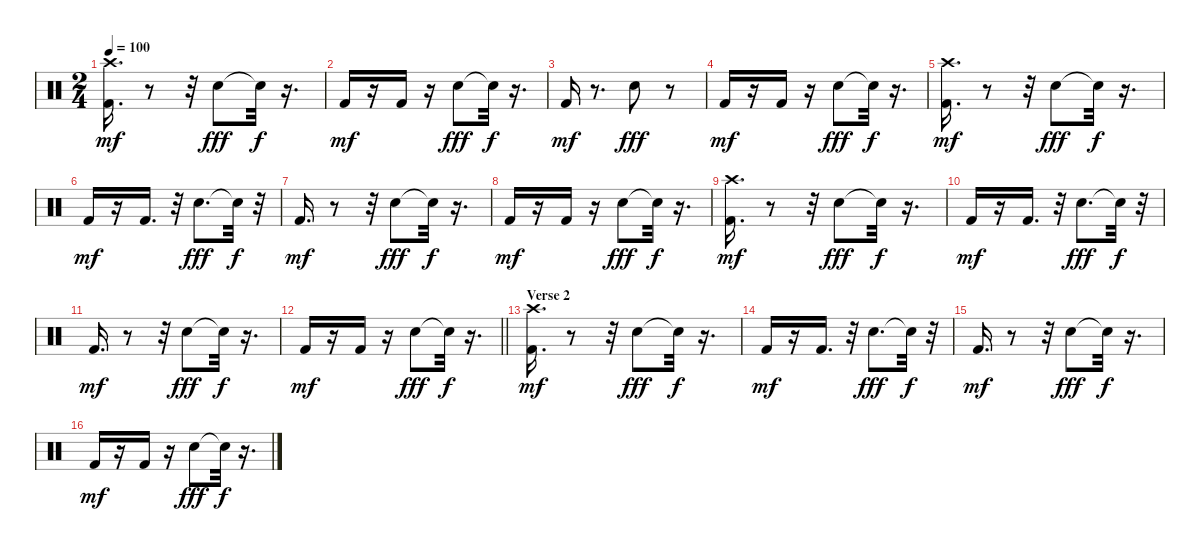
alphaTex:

\track "" {instrument percussion}
\staff {score}
\articulation defaults
\ts (2 4)
\tempo 100
\clef neutral
\ks c
("Crash high (hit)" "Kick (hit) 2").16{d dy mf} r.8 r.32 "Snare (hit) 2".8{dy fff} "Snare (hit)"{t}.32{dy f} r.16{d} |
"Kick (hit) 2".16{dy mf} r.16 "Kick (hit) 2".16 r.16 "Snare (hit) 2".8{dy fff} "Snare (hit)"{t}.32{dy f} r.16{d} |
"Kick (hit) 2".16{dy mf} r.8{d} "Snare (hit) 2".8{dy fff} r.8 |
"Kick (hit) 2".16{dy mf} r.16 "Kick (hit) 2".16 r.16 "Snare (hit) 2".8{dy fff} "Snare (hit)"{t}.32{dy f} r.16{d} |
("Crash high (hit)" "Kick (hit) 2").16{d dy mf} r.8 r.32 "Snare (hit) 2".8{dy fff} "Snare (hit)"{t}.32{dy f} r.16{d} |
"Kick (hit) 2".16{dy mf} r.16 "Kick (hit) 2".16{d} r.32 "Snare (hit) 2".8{d dy fff} "Snare (hit)"{t}.32{dy f} r.32 |
"Kick (hit) 2".16{d dy mf} r.8 r.32 "Snare (hit) 2".8{dy fff} "Snare (hit)"{t}.32{dy f} r.16{d} |
"Kick (hit) 2".16{dy mf} r.16 "Kick (hit) 2".16 r.16 "Snare (hit) 2".8{dy fff} "Snare (hit)"{t}.32{dy f} r.16{d} |
("Crash high (hit)" "Kick (hit) 2").16{d dy mf} r.8 r.32 "Snare (hit) 2".8{dy fff} "Snare (hit)"{t}.32{dy f} r.16{d} |
"Kick (hit) 2".16{dy mf} r.16 "Kick (hit) 2".16{d} r.32 "Snare (hit) 2".8{d dy fff} "Snare (hit)"{t}.32{dy f} r.32 |
"Kick (hit) 2".16{d dy mf} r.8 r.32 "Snare (hit) 2".8{dy fff} "Snare (hit)"{t}.32{dy f} r.16{d} |
\barLineRight lightlight "Kick (hit) 2".16{dy mf}
r.16 "Kick (hit) 2".16 r.16 "Snare (hit) 2".8{dy fff} "Snare (hit)"{t}.32{dy f} r.16{d} |
\section ("" "Verse 2")
("Kick (hit) 2" "Crash high (hit)").16{d dy mf} r.8 r.32 "Snare (hit) 2".8{dy fff} "Snare (hit)"{t}.32{dy f} r.16{d} |
"Kick (hit) 2".16{dy mf} r.16 "Kick (hit) 2".16{d} r.32 "Snare (hit) 2".8{d dy fff} "Snare (hit)"{t}.32{dy f} r.32 |
"Kick (hit) 2".16{d dy mf} r.8 r.32 "Snare (hit) 2".8{dy fff} "Snare (hit)"{t}.32{dy f} r.16{d} |
"Kick (hit) 2".16{dy mf} r.16 "Kick (hit) 2".16 r.16 "Snare (hit) 2".8{dy fff} "Snare (hit)"{t}.32{dy f} r.16{d}
